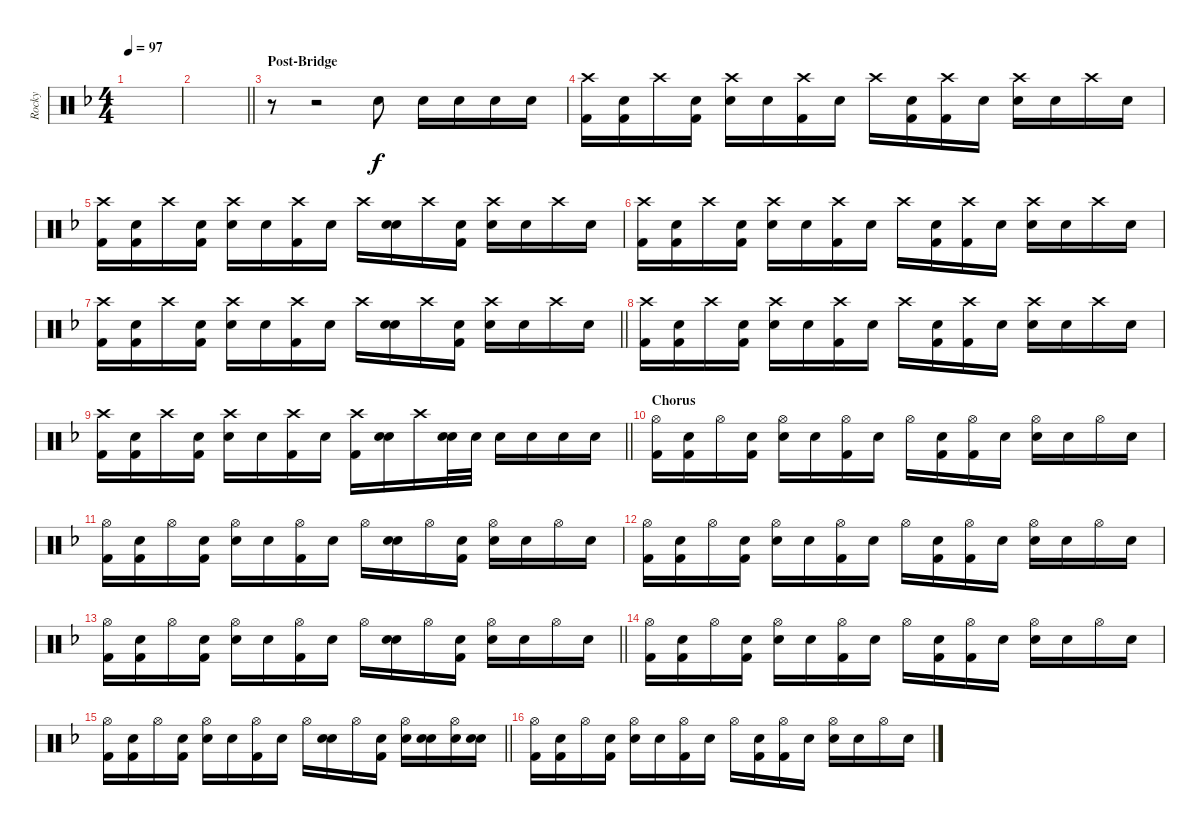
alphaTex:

\track ("Rocky" "Rocky") {instrument percussion}
\staff {score}
\articulation defaults
\ts (4 4)
\tempo 97
\clef neutral
\ks f
|
\barLineRight lightlight
|
\section ("" "Post-Bridge")
r.8 r.2 "Snare (hit) 2".8 "Snare (hit) 2".16 "Snare (hit) 2".16 "Snare (hit) 2".16 "Snare (hit) 2".16 |
("Crash high (hit)" "Kick (hit) 2").16 ("Snare (hit)" "Kick (hit) 2").16 "Crash high (hit)".16 ("Snare (hit)" "Kick (hit) 2").16 ("Crash high (hit)" "Snare (hit) 2").16 "Snare (hit)".16 ("Crash high (hit)" "Kick (hit) 2").16 "Snare (hit)".16 "Crash high (hit)".16 ("Snare (hit)" "Kick (hit) 2").16 ("Crash high (hit)" "Kick (hit) 2").16 "Snare (hit)".16 ("Crash high (hit)" "Snare (hit) 2").16 "Snare (hit)".16 "Crash high (hit)".16 "Snare (hit)".16 |
("Crash high (hit)" "Kick (hit) 2").16 ("Snare (hit)" "Kick (hit) 2").16 "Crash high (hit)".16 ("Snare (hit)" "Kick (hit) 2").16 ("Crash high (hit)" "Snare (hit) 2").16 "Snare (hit)".16 ("Crash high (hit)" "Kick (hit) 2").16 "Snare (hit)".16 "Crash high (hit)".16 ("Snare (hit)" "Snare (hit) 2").16 "Crash high (hit)".16 ("Snare (hit)" "Kick (hit) 2").16 ("Crash high (hit)" "Snare (hit) 2").16 "Snare (hit)".16 "Crash high (hit)".16 "Snare (hit)".16 |
("Crash high (hit)" "Kick (hit) 2").16 ("Snare (hit)" "Kick (hit) 2").16 "Crash high (hit)".16 ("Snare (hit)" "Kick (hit) 2").16 ("Crash high (hit)" "Snare (hit) 2").16 "Snare (hit)".16 ("Crash high (hit)" "Kick (hit) 2").16 "Snare (hit)".16 "Crash high (hit)".16 ("Snare (hit)" "Kick (hit) 2").16 ("Crash high (hit)" "Kick (hit) 2").16 "Snare (hit)".16 ("Crash high (hit)" "Snare (hit) 2").16 "Snare (hit)".16 "Crash high (hit)".16 "Snare (hit)".16 |
\barLineRight lightlight
("Crash high (hit)" "Kick (hit) 2").16 ("Snare (hit)" "Kick (hit) 2").16 "Crash high (hit)".16 ("Snare (hit)" "Kick (hit) 2").16 ("Crash high (hit)" "Snare (hit) 2").16 "Snare (hit)".16 ("Crash high (hit)" "Kick (hit) 2").16 "Snare (hit)".16 "Crash high (hit)".16 ("Snare (hit)" "Snare (hit) 2").16 "Crash high (hit)".16 ("Snare (hit)" "Kick (hit) 2").16 ("Crash high (hit)" "Snare (hit) 2").16 "Snare (hit)".16 "Crash high (hit)".16 "Snare (hit)".16 |
("Crash high (hit)" "Kick (hit) 2").16 ("Snare (hit)" "Kick (hit) 2").16 "Crash high (hit)".16 ("Snare (hit)" "Kick (hit) 2").16 ("Crash high (hit)" "Snare (hit) 2").16 "Snare (hit)".16 ("Crash high (hit)" "Kick (hit) 2").16 "Snare (hit)".16 "Crash high (hit)".16 ("Snare (hit)" "Kick (hit) 2").16 ("Crash high (hit)" "Kick (hit) 2").16 "Snare (hit)".16 ("Crash high (hit)" "Snare (hit) 2").16 "Snare (hit)".16 "Crash high (hit)".16 "Snare (hit)".16 |
\barLineRight lightlight
("Crash high (hit)" "Kick (hit) 2").16 ("Snare (hit)" "Kick (hit) 2").16 "Crash high (hit)".16 ("Snare (hit)" "Kick (hit) 2").16 ("Crash high (hit)" "Snare (hit) 2").16 "Snare (hit)".16 ("Crash high (hit)" "Kick (hit) 2").16 "Snare (hit)".16 ("Crash high (hit)" "Kick (hit) 2").16 ("Snare (hit)" "Snare (hit) 2").16 "Crash high (hit)".16 ("Snare (hit)" "Snare (hit) 2").32 "Snare (hit) 2".32 "Snare (hit) 2".16 "Snare (hit) 2".16 "Snare (hit) 2".16 "Snare (hit) 2".16 |
\section ("" "Chorus")
("Hi-Hat (open)" "Kick (hit) 2").16 ("Snare (hit)" "Kick (hit) 2").16 "Hi-Hat (open)".16 ("Snare (hit)" "Kick (hit) 2").16 ("Hi-Hat (open)" "Snare (hit) 2").16 "Snare (hit)".16 ("Hi-Hat (open)" "Kick (hit) 2").16 "Snare (hit)".16 "Hi-Hat (open)".16 ("Snare (hit)" "Kick (hit) 2").16 ("Hi-Hat (open)" "Kick (hit) 2").16 "Snare (hit)".16 ("Hi-Hat (open)" "Snare (hit) 2").16 "Snare (hit)".16 "Hi-Hat (open)".16 "Snare (hit)".16 |
("Hi-Hat (open)" "Kick (hit) 2").16 ("Snare (hit)" "Kick (hit) 2").16 "Hi-Hat (open)".16 ("Snare (hit)" "Kick (hit) 2").16 ("Hi-Hat (open)" "Snare (hit) 2").16 "Snare (hit)".16 ("Hi-Hat (open)" "Kick (hit) 2").16 "Snare (hit)".16 "Hi-Hat (open)".16 ("Snare (hit)" "Snare (hit) 2").16 "Hi-Hat (open)".16 ("Snare (hit)" "Kick (hit) 2").16 ("Hi-Hat (open)" "Snare (hit) 2").16 "Snare (hit)".16 "Hi-Hat (open)".16 "Snare (hit)".16 |
("Hi-Hat (open)" "Kick (hit) 2").16 ("Snare (hit)" "Kick (hit) 2").16 "Hi-Hat (open)".16 ("Snare (hit)" "Kick (hit) 2").16 ("Hi-Hat (open)" "Snare (hit) 2").16 "Snare (hit)".16 ("Hi-Hat (open)" "Kick (hit) 2").16 "Snare (hit)".16 "Hi-Hat (open)".16 ("Snare (hit)" "Kick (hit) 2").16 ("Hi-Hat (open)" "Kick (hit) 2").16 "Snare (hit)".16 ("Hi-Hat (open)" "Snare (hit) 2").16 "Snare (hit)".16 "Hi-Hat (open)".16 "Snare (hit)".16 |
\barLineRight lightlight
("Hi-Hat (open)" "Kick (hit) 2").16 ("Snare (hit)" "Kick (hit) 2").16 "Hi-Hat (open)".16 ("Snare (hit)" "Kick (hit) 2").16 ("Hi-Hat (open)" "Snare (hit) 2").16 "Snare (hit)".16 ("Hi-Hat (open)" "Kick (hit) 2").16 "Snare (hit)".16 "Hi-Hat (open)".16 ("Snare (hit)" "Snare (hit) 2").16 "Hi-Hat (open)".16 ("Snare (hit)" "Kick (hit) 2").16 ("Hi-Hat (open)" "Snare (hit) 2").16 "Snare (hit)".16 "Hi-Hat (open)".16 "Snare (hit)".16 |
("Hi-Hat (open)" "Kick (hit) 2").16 ("Snare (hit)" "Kick (hit) 2").16 "Hi-Hat (open)".16 ("Snare (hit)" "Kick (hit) 2").16 ("Hi-Hat (open)" "Snare (hit) 2").16 "Snare (hit)".16 ("Hi-Hat (open)" "Kick (hit) 2").16 "Snare (hit)".16 "Hi-Hat (open)".16 ("Snare (hit)" "Kick (hit) 2").16 ("Hi-Hat (open)" "Kick (hit) 2").16 "Snare (hit)".16 ("Hi-Hat (open)" "Snare (hit) 2").16 "Snare (hit)".16 "Hi-Hat (open)".16 "Snare (hit)".16 |
\barLineRight lightlight
("Hi-Hat (open)" "Kick (hit) 2").16 ("Snare (hit)" "Kick (hit) 2").16 "Hi-Hat (open)".16 ("Snare (hit)" "Kick (hit) 2").16 ("Hi-Hat (open)" "Snare (hit) 2").16 "Snare (hit)".16 ("Hi-Hat (open)" "Kick (hit) 2").16 "Snare (hit)".16 "Hi-Hat (open)".16 ("Snare (hit)" "Snare (hit) 2").16 "Hi-Hat (open)".16 ("Snare (hit)" "Kick (hit) 2").16 ("Hi-Hat (open)" "Snare (hit) 2").16 ("Snare (hit)" "Snare (hit) 2").16 ("Hi-Hat (open)" "Snare (hit) 2").16 ("Snare (hit)" "Snare (hit) 2").16 |
("Hi-Hat (open)" "Kick (hit) 2").16 ("Snare (hit)" "Kick (hit) 2").16 "Hi-Hat (open)".16 ("Snare (hit)" "Kick (hit) 2").16 ("Hi-Hat (open)" "Snare (hit) 2").16 "Snare (hit)".16 ("Hi-Hat (open)" "Kick (hit) 2").16 "Snare (hit)".16 "Hi-Hat (open)".16 ("Snare (hit)" "Kick (hit) 2").16 ("Hi-Hat (open)" "Kick (hit) 2").16 "Snare (hit)".16 ("Hi-Hat (open)" "Snare (hit) 2").16 "Snare (hit)".16 "Hi-Hat (open)".16 "Snare (hit)".16
